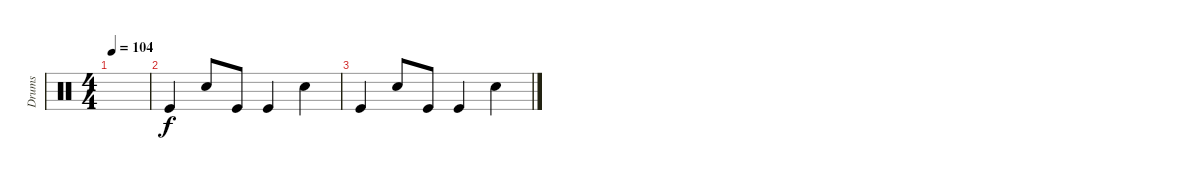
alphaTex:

\track ("Drums" "Drums") {instrument percussion}
\staff {score}
\articulation defaults
\ts (4 4)
\tempo 104
\clef neutral
\ks c
|
"Kick (hit)".4 "Snare (hit) 2".8 "Kick (hit)".8 "Kick (hit)".4 "Snare (hit) 2".4 |
"Kick (hit)".4 "Snare (hit) 2".8 "Kick (hit)".8 "Kick (hit)".4 "Snare (hit) 2".4
